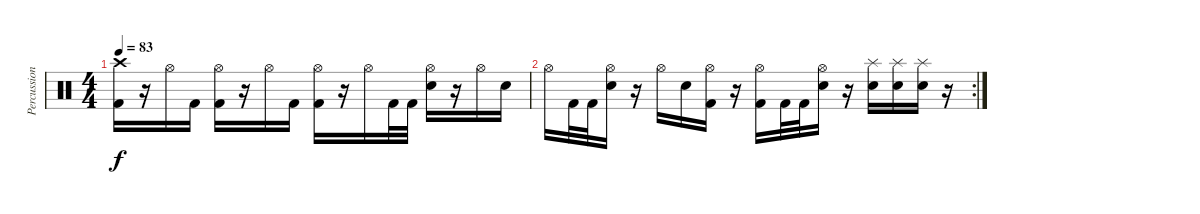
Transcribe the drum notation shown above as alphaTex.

\track ("Percussions" "Percussion") {instrument percussion}
\staff {score}
\articulation defaults
\ts (4 4)
\tempo 83
\clef neutral
\ks c
("Crash high (hit)" "Kick (hit) 2").16{dy f} r.16 "Hi-Hat (open)".16 "Kick (hit) 2".16 ("Hi-Hat (open)" "Kick (hit) 2").16 r.16 "Hi-Hat (open)".16 "Kick (hit) 2".16 ("Hi-Hat (open)" "Kick (hit) 2").16 r.16 "Hi-Hat (open)".16 "Kick (hit) 2".32 "Kick (hit) 2".32 ("Hi-Hat (open)" "Electric Snare (hit)").16 r.16 "Hi-Hat (open)".16 "Electric Snare (hit)".16 |
\rc 2 "Hi-Hat (open)".16 "Kick (hit) 2".32 "Kick (hit) 2".32
("Hi-Hat (open)" "Electric Snare (hit)").16 r.16 "Hi-Hat (open)".16 "Electric Snare (hit)".16 ("Hi-Hat (open)" "Kick (hit) 2").16 r.16 ("Hi-Hat (open)" "Kick (hit) 2").16 "Kick (hit) 2".32 "Kick (hit) 2".32 ("Hi-Hat (open)" "Electric Snare (hit)").16 r.16 ("Splash (hit)" "Electric Snare (hit)").16 ("Splash (hit)" "Electric Snare (hit)").16 ("Splash (hit)" "Electric Snare (hit)").16 r.16
